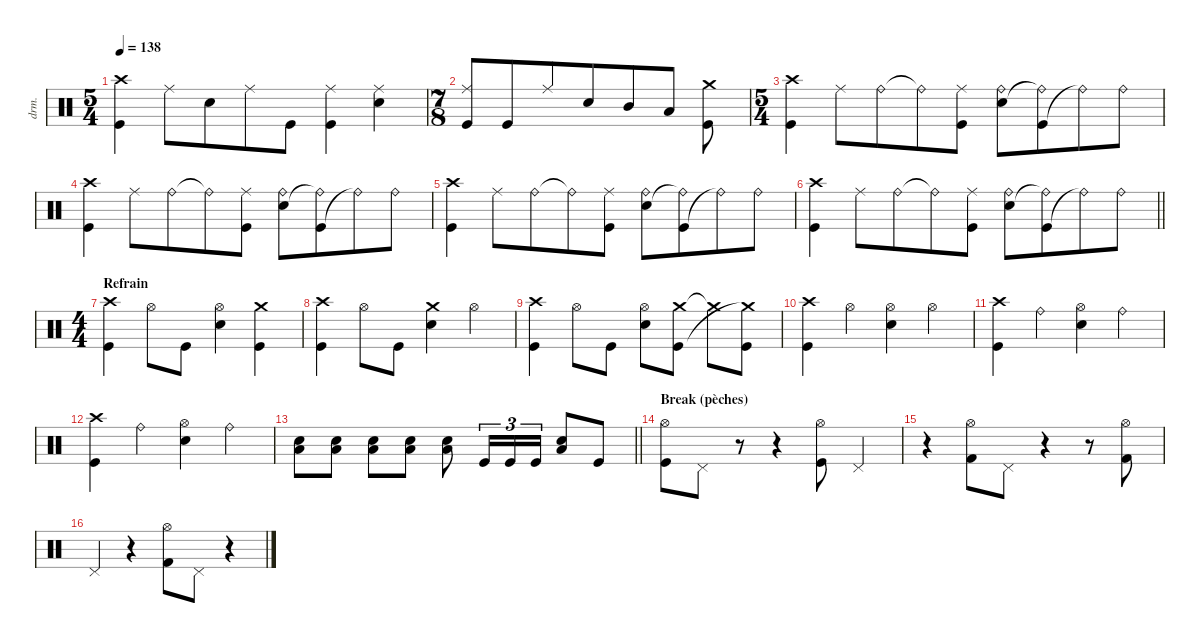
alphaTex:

\defaultSystemsLayout 4
\hideDynamics
\bracketExtendMode nobrackets
\track ("Percussions" "drm.") {instrument percussion}
\staff {score}
\articulation defaults
\ts (5 4)
\beaming (8 6 4)
\tempo 138
\clef neutral
\ks aminor
("Crash high (hit)" "Kick (hit)").4{dy f beam Down} "Ride (middle)".8{beam Down} "Snare (hit) 2".8{beam Down} "Ride (middle)".8{beam Down} "Kick (hit)".8{beam Down} ("Ride (middle)" "Kick (hit)").4{beam Down} ("Ride (middle)" "Snare (hit) 2").4{beam Down} |
\ts (7 8)
\beaming (8 6 4)
("Ride (middle)" "Kick (hit)").8{beam Up} "Kick (hit)".8{beam Up} "Ride (middle)".8{beam Up} "Snare (hit) 2".8{beam Up} "Mid Tom (hit)".8{beam Up} "Low Tom (hit)".8{beam Up} ("Kick (hit)" "Crash medium (hit)").8{beam Down} |
\ts (5 4)
\beaming (8 6 4)
("Crash high (hit)" "Kick (hit)").4{beam Down} "Ride (middle)".8{beam Down} "Ride (bell)".8{beam Down} "Ride (bell)"{t}.8{beam Down} ("Ride (middle)" "Kick (hit)").8{beam Down} ("Ride (bell)" "Snare (hit) 2").8{beam Down} ("Kick (hit)" "Ride (bell)"{t}).8{beam Down} "Ride (bell)"{t}.8{beam Down} "Ride (bell)".8{beam Down} |
("Crash high (hit)" "Kick (hit)").4{beam Down} "Ride (middle)".8{beam Down} "Ride (bell)".8{beam Down} "Ride (bell)"{t}.8{beam Down} ("Ride (middle)" "Kick (hit)").8{beam Down} ("Ride (bell)" "Snare (hit) 2").8{beam Down} ("Kick (hit)" "Ride (bell)"{t}).8{beam Down} "Ride (bell)"{t}.8{beam Down} "Ride (bell)".8{beam Down} |
("Crash high (hit)" "Kick (hit)").4{beam Down} "Ride (middle)".8{beam Down} "Ride (bell)".8{beam Down} "Ride (bell)"{t}.8{beam Down} ("Ride (middle)" "Kick (hit)").8{beam Down} ("Ride (bell)" "Snare (hit) 2").8{beam Down} ("Kick (hit)" "Ride (bell)"{t}).8{beam Down} "Ride (bell)"{t}.8{beam Down} "Ride (bell)".8{beam Down} |
\barLineRight lightlight
("Crash high (hit)" "Kick (hit)").4{beam Down} "Ride (middle)".8{beam Down} "Ride (bell)".8{beam Down} "Ride (bell)"{t}.8{beam Down} ("Ride (middle)" "Kick (hit)").8{beam Down} ("Ride (bell)" "Snare (hit) 2").8{beam Down} ("Kick (hit)" "Ride (bell)"{t}).8{beam Down} "Ride (bell)"{t}.8{beam Down} "Ride (bell)".8{beam Down} |
\ts (4 4)
\beaming (8 2 2 2 2)
\section ("" "Refrain")
("Kick (hit)" "Crash high (hit)").4{beam Down} "Hi-Hat (open)".8{beam Down} "Kick (hit)".8{beam Down} ("Hi-Hat (open)" "Snare (hit) 2").4{beam Down} ("Crash medium (hit)" "Kick (hit)").4{beam Down} |
("Kick (hit)" "Crash high (hit)").4{beam Down} "Hi-Hat (open)".8{beam Down} "Kick (hit)".8{beam Down} ("Crash medium (hit)" "Snare (hit) 2").4{beam Down} "Hi-Hat (open)".4{beam Down} |
("Kick (hit)" "Crash high (hit)").4{beam Down} "Hi-Hat (open)".8{beam Down} "Kick (hit)".8{beam Down} ("Hi-Hat (open)" "Snare (hit) 2").8{beam Down} ("Crash medium (hit)" "Kick (hit)").8{beam Down} "Crash medium (hit)"{t}.8{beam Down} ("Kick (hit)" "Crash medium (hit)"{t}).8{beam Down} |
("Kick (hit)" "Crash high (hit)").4{beam Down} "Hi-Hat (open)".4{beam Down} ("Hi-Hat (open)" "Snare (hit) 2").4{beam Down} "Hi-Hat (open)".4{beam Down} |
("Kick (hit)" "Crash high (hit)").4{beam Down} "Ride (bell)".4{beam Down} ("Hi-Hat (open)" "Snare (hit) 2").4{beam Down} "Ride (bell)".4{beam Down} |
("Kick (hit)" "Crash high (hit)").4{beam Down} "Ride (bell)".4{beam Down} ("Hi-Hat (open)" "Snare (hit) 2").4{beam Down} "Ride (bell)".4{beam Down} |
\barLineRight lightlight
("Snare (hit) 2" "Low Tom (hit)").8{beam Down} ("Snare (hit) 2" "Low Tom (hit)").8{beam Down} ("Snare (hit) 2" "Low Tom (hit)").8{beam Down} ("Snare (hit) 2" "Low Tom (hit)").8{beam Down} ("Snare (hit) 2" "Low Tom (hit)").8{beam Down} "Kick (hit)".16{tu (3 2) beam Up} "Kick (hit)".16{tu (3 2) beam Up} "Kick (hit)".16{tu (3 2) beam Up} ("Snare (hit) 2" "Low Tom (hit)").8{beam Up} "Kick (hit)".8{beam Up} |
\section ("" "Break (pèches)")
("Hi-Hat (open)" "Kick (hit)").8{beam Down} "Pedal Hi-Hat (hit)".8{beam Down} r.8{beam Down} r.4{beam Down} ("Hi-Hat (open)" "Kick (hit)").8{beam Down} "Pedal Hi-Hat (hit)".4{beam Up} |
r.4{beam Down} ("Kick (hit) 2" "Hi-Hat (open)").8{beam Down} "Pedal Hi-Hat (hit)".8{beam Down} r.4{beam Down} r.8{beam Down} ("Kick (hit) 2" "Hi-Hat (open)").8{beam Down} |
"Pedal Hi-Hat (hit)".4{beam Up} r.4{beam Up} ("Kick (hit) 2" "Hi-Hat (open)").8{beam Down} "Pedal Hi-Hat (hit)".8{beam Down} r.4{beam Down}
